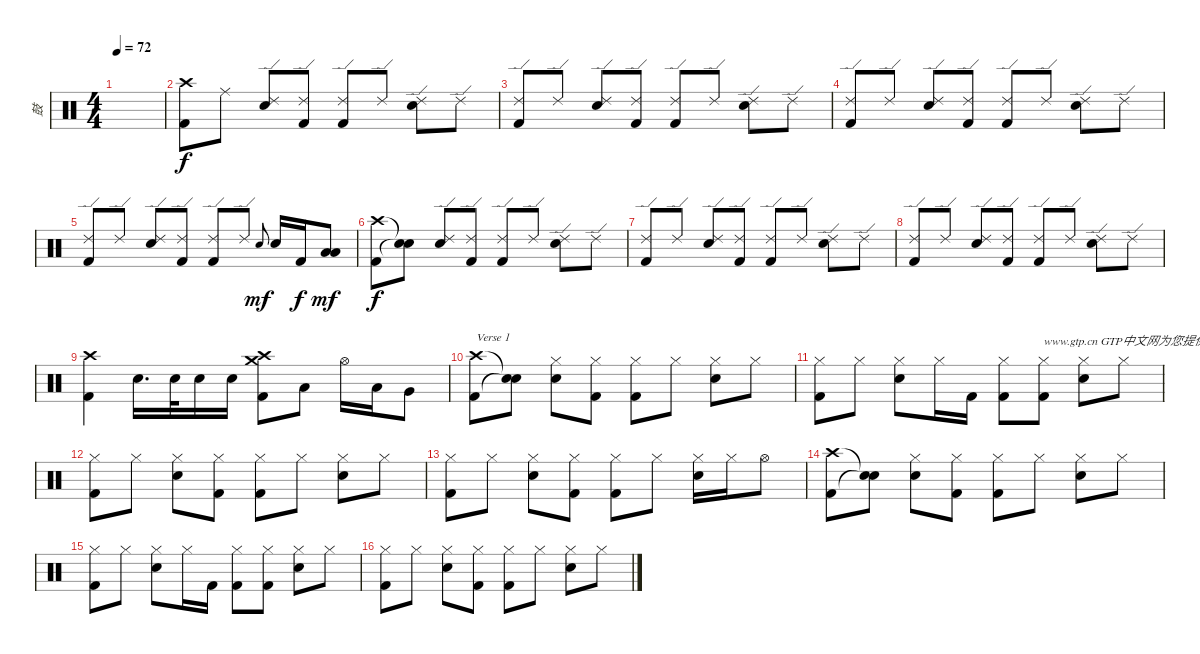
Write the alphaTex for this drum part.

\track ("鼓" "鼓") {instrument percussion}
\staff {score}
\articulation defaults
\ts (4 4)
\tempo 72
\clef neutral
\ks c
|
("Crash high (hit)" "Kick (hit) 2").8 "Ride (middle)".8 ("Ride (edge) 2" "Electric Snare (hit)").8 ("Ride (edge) 2" "Kick (hit) 2").8 ("Ride (edge) 2" "Kick (hit) 2").8 "Ride (edge) 2".8 ("Ride (edge) 2" "Electric Snare (hit)").8 "Ride (edge) 2".8 |
("Ride (edge) 2" "Kick (hit) 2").8 "Ride (edge) 2".8 ("Ride (edge) 2" "Electric Snare (hit)").8 ("Ride (edge) 2" "Kick (hit) 2").8 ("Ride (edge) 2" "Kick (hit) 2").8 "Ride (edge) 2".8 ("Ride (edge) 2" "Electric Snare (hit)").8 "Ride (edge) 2".8 |
("Ride (edge) 2" "Kick (hit) 2").8 "Ride (edge) 2".8 ("Ride (edge) 2" "Electric Snare (hit)").8 ("Ride (edge) 2" "Kick (hit) 2").8 ("Ride (edge) 2" "Kick (hit) 2").8 "Ride (edge) 2".8 ("Ride (edge) 2" "Electric Snare (hit)").8 "Ride (edge) 2".8 |
("Ride (edge) 2" "Kick (hit) 2").8 "Ride (edge) 2".8 ("Ride (edge) 2" "Electric Snare (hit)").8 ("Ride (edge) 2" "Kick (hit) 2").8 ("Ride (edge) 2" "Kick (hit) 2").8 "Ride (edge) 2".8 "Electric Snare (hit)".8{gr onbeat dy mf} "Electric Snare (hit)".16 "Kick (hit) 2".16{dy f} ("Low Tom (hit)" "Low Floor Tom (hit)").8{dy mf} |
("Crash high (hit)" "Kick (hit) 2").8{dy f} ("Snare (hit)"{t} "Snare (hit)"{t}).8 ("Ride (edge) 2" "Electric Snare (hit)").8 ("Ride (edge) 2" "Kick (hit) 2").8 ("Ride (edge) 2" "Kick (hit) 2").8 "Ride (edge) 2".8 ("Ride (edge) 2" "Electric Snare (hit)").8 "Ride (edge) 2".8 |
("Ride (edge) 2" "Kick (hit) 2").8 "Ride (edge) 2".8 ("Ride (edge) 2" "Electric Snare (hit)").8 ("Ride (edge) 2" "Kick (hit) 2").8 ("Ride (edge) 2" "Kick (hit) 2").8 "Ride (edge) 2".8 ("Ride (edge) 2" "Electric Snare (hit)").8 "Ride (edge) 2".8 |
("Ride (edge) 2" "Kick (hit) 2").8 "Ride (edge) 2".8 ("Ride (edge) 2" "Electric Snare (hit)").8 ("Ride (edge) 2" "Kick (hit) 2").8 ("Ride (edge) 2" "Kick (hit) 2").8 "Ride (edge) 2".8 ("Ride (edge) 2" "Electric Snare (hit)").8 "Ride (edge) 2".8 |
("Crash high (hit)" "Kick (hit) 2").4 "Electric Snare (hit)".16{d} "Electric Snare (hit)".32 "Electric Snare (hit)".16 "Electric Snare (hit)".16 ("Crash high (hit)" "Crash medium (hit)" "Kick (hit) 2").8 "Low Tom (hit)".8 "Hi-Hat (open)".16 "Low Tom (hit)".16 "Very Low Tom (hit)".8 |
("Crash high (hit)" "Kick (hit) 2").8{txt "Verse 1"} ("Snare (hit)"{t} "Snare (hit)"{t}).8 ("Hi-Hat (closed)" "Electric Snare (hit)").8 ("Hi-Hat (closed)" "Kick (hit) 2").8 ("Hi-Hat (closed)" "Kick (hit) 2").8 "Hi-Hat (closed)".8 ("Hi-Hat (closed)" "Electric Snare (hit)").8 "Hi-Hat (closed)".8 |
("Hi-Hat (closed)" "Kick (hit) 2").8 "Hi-Hat (closed)".8 ("Hi-Hat (closed)" "Electric Snare (hit)").8 "Hi-Hat (closed)".16 "Kick (hit) 2".16 ("Hi-Hat (closed)" "Kick (hit) 2").8 ("Hi-Hat (closed)" "Kick (hit) 2").8{txt "www.gtp.cn GTP中文网为您提供优秀的谱子"} ("Hi-Hat (closed)" "Electric Snare (hit)").8 "Hi-Hat (closed)".8 |
("Hi-Hat (closed)" "Kick (hit) 2").8 "Hi-Hat (closed)".8 ("Hi-Hat (closed)" "Electric Snare (hit)").8 ("Hi-Hat (closed)" "Kick (hit) 2").8 ("Hi-Hat (closed)" "Kick (hit) 2").8 "Hi-Hat (closed)".8 ("Hi-Hat (closed)" "Electric Snare (hit)").8 "Hi-Hat (closed)".8 |
("Hi-Hat (closed)" "Kick (hit) 2").8 "Hi-Hat (closed)".8 ("Hi-Hat (closed)" "Electric Snare (hit)").8 ("Hi-Hat (closed)" "Kick (hit) 2").8 ("Hi-Hat (closed)" "Kick (hit) 2").8 "Hi-Hat (closed)".8 ("Hi-Hat (closed)" "Electric Snare (hit)").16 "Hi-Hat (closed)".16 "Hi-Hat (open)".8 |
("Crash high (hit)" "Kick (hit) 2").8 ("Snare (hit)"{t} "Snare (hit)"{t}).8 ("Hi-Hat (closed)" "Electric Snare (hit)").8 ("Hi-Hat (closed)" "Kick (hit) 2").8 ("Hi-Hat (closed)" "Kick (hit) 2").8 "Hi-Hat (closed)".8 ("Hi-Hat (closed)" "Electric Snare (hit)").8 "Hi-Hat (closed)".8 |
("Hi-Hat (closed)" "Kick (hit) 2").8 "Hi-Hat (closed)".8 ("Hi-Hat (closed)" "Electric Snare (hit)").8 "Hi-Hat (closed)".16 "Kick (hit) 2".16 ("Hi-Hat (closed)" "Kick (hit) 2").8 ("Hi-Hat (closed)" "Kick (hit) 2").8 ("Hi-Hat (closed)" "Electric Snare (hit)").8 "Hi-Hat (closed)".8 |
("Hi-Hat (closed)" "Kick (hit) 2").8 "Hi-Hat (closed)".8 ("Hi-Hat (closed)" "Electric Snare (hit)").8 ("Hi-Hat (closed)" "Kick (hit) 2").8 ("Hi-Hat (closed)" "Kick (hit) 2").8 "Hi-Hat (closed)".8 ("Hi-Hat (closed)" "Electric Snare (hit)").8 "Hi-Hat (closed)".8
